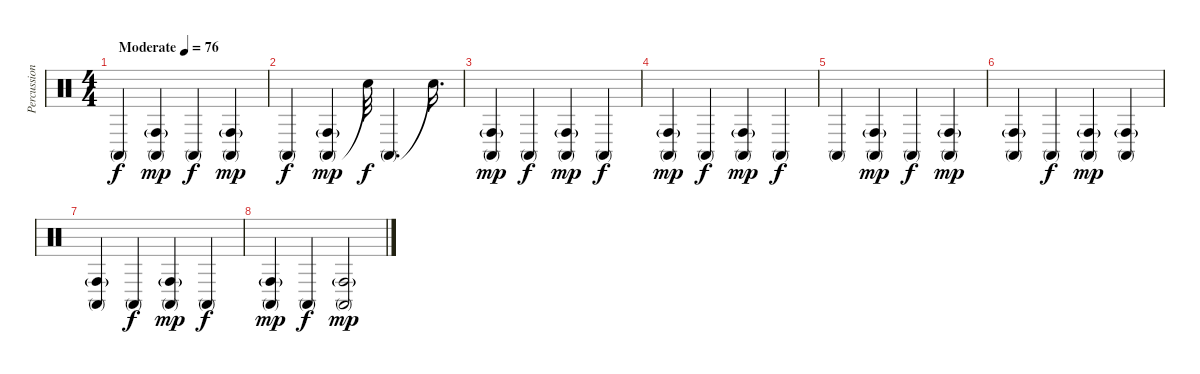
\track ("Percussion" "Percussion") {instrument percussion}
\staff {score}
\articulation defaults
\ts (4 4)
\tempo (76 "Moderate")
\clef neutral
\ks c "Conga high (mute)".4{dy f}
("Conga high (mute)" "Conga high (hit)"{g}).4{dy mp} "Conga high (mute)".4{dy f} ("Conga high (mute)" "Conga high (hit)"{g}).4{dy mp} |
"Conga high (mute)".4{dy f} ("Conga high (mute)" "Conga high (hit)"{g}).4{dy mp} "Snare (hit)"{t}.32{dy f} "Conga high (mute)".4{d} "Snare (hit)"{t}.16{d} |
("Conga high (mute)" "Conga high (hit)"{g}).4{dy mp} "Conga high (mute)".4{dy f} ("Conga high (mute)" "Conga high (hit)"{g}).4{dy mp} "Conga high (mute)".4{dy f} |
("Conga high (mute)" "Conga high (hit)"{g}).4{dy mp} "Conga high (mute)".4{dy f} ("Conga high (mute)" "Conga high (hit)"{g}).4{dy mp} "Conga high (mute)".4{dy f} |
"Conga high (mute)".4 ("Conga high (mute)" "Conga high (hit)"{g}).4{dy mp} "Conga high (mute)".4{dy f} ("Conga high (mute)" "Conga high (hit)"{g}).4{dy mp} |
("Conga high (mute)" "Conga high (hit)"{g}).4 "Conga high (mute)".4{dy f} ("Conga high (mute)" "Conga high (hit)"{g}).4{dy mp} ("Conga high (mute)" "Conga high (hit)"{g}).4 |
("Conga high (mute)" "Conga high (hit)"{g}).4 "Conga high (mute)".4{dy f} ("Conga high (mute)" "Conga high (hit)"{g}).4{dy mp} "Conga high (mute)".4{dy f} |
("Conga high (mute)" "Conga high (hit)"{g}).4{dy mp} "Conga high (mute)".4{dy f} ("Conga high (mute)" "Conga high (hit)"{g}).2{dy mp}
